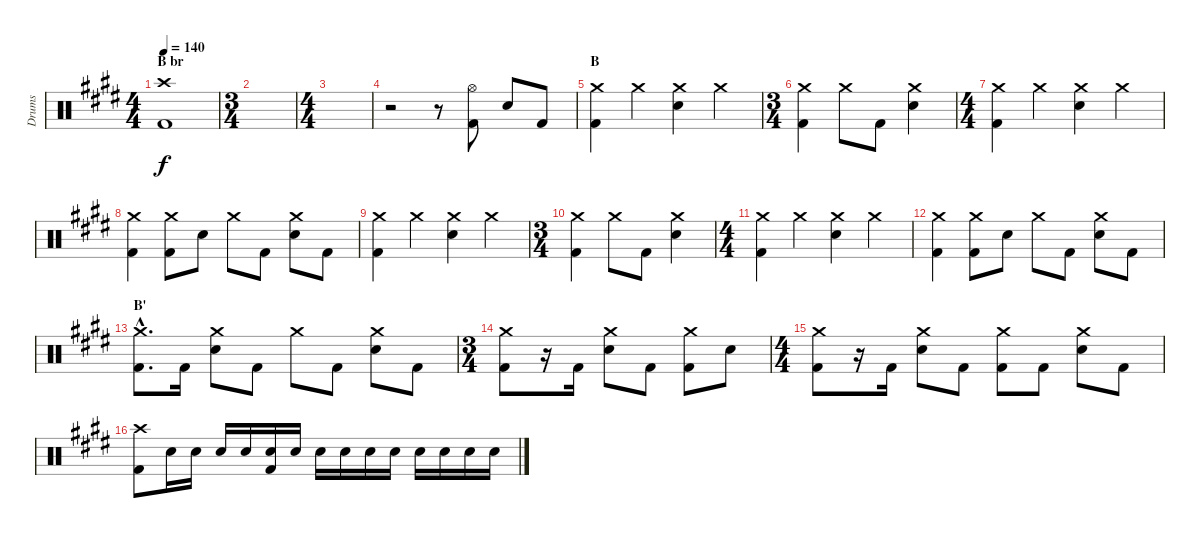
\track ("Drums" "Drums") {instrument percussion}
\staff {score}
\articulation defaults
\ts (4 4)
\section ("" "B br")
\tempo 140
\clef neutral
\ks e
("Crash high (hit)" "Kick (hit) 2").1{dy f} |
\ts (3 4)
|
\ts (4 4)
|
r.2 r.8 ("Hi-Hat (open)" "Kick (hit) 2").8 "Electric Snare (hit)".8 "Kick (hit) 2".8 |
\section ("" "B")
("Crash medium (hit)" "Kick (hit) 2").4 "Crash medium (hit)".4 ("Crash medium (hit)" "Electric Snare (hit)").4 "Crash medium (hit)".4 |
\ts (3 4)
("Crash medium (hit)" "Kick (hit) 2").4 "Crash medium (hit)".8 "Kick (hit) 2".8 ("Crash medium (hit)" "Electric Snare (hit)").4 |
\ts (4 4)
("Crash medium (hit)" "Kick (hit) 2").4 "Crash medium (hit)".4 ("Crash medium (hit)" "Electric Snare (hit)").4 "Crash medium (hit)".4 |
("Crash medium (hit)" "Kick (hit) 2").4 ("Crash medium (hit)" "Kick (hit) 2").8 "Electric Snare (hit)".8 "Crash medium (hit)".8 "Kick (hit) 2".8 ("Crash medium (hit)" "Electric Snare (hit)").8 "Kick (hit) 2".8 |
("Crash medium (hit)" "Kick (hit) 2").4 "Crash medium (hit)".4 ("Crash medium (hit)" "Electric Snare (hit)").4 "Crash medium (hit)".4 |
\ts (3 4)
("Crash medium (hit)" "Kick (hit) 2").4 "Crash medium (hit)".8 "Kick (hit) 2".8 ("Crash medium (hit)" "Electric Snare (hit)").4 |
\ts (4 4)
("Crash medium (hit)" "Kick (hit) 2").4 "Crash medium (hit)".4 ("Crash medium (hit)" "Electric Snare (hit)").4 "Crash medium (hit)".4 |
("Crash medium (hit)" "Kick (hit) 2").4 ("Crash medium (hit)" "Kick (hit) 2").8 "Electric Snare (hit)".8 "Crash medium (hit)".8 "Kick (hit) 2".8 ("Crash medium (hit)" "Electric Snare (hit)").8 "Kick (hit) 2".8 |
\section ("" "B'")
("Crash medium (hit)"{hac} "Kick (hit) 2"{hac}).8{d} "Kick (hit) 2".16 ("Crash medium (hit)" "Electric Snare (hit)").8 "Kick (hit) 2".8 "Crash medium (hit)".8 "Kick (hit) 2".8 ("Crash medium (hit)" "Electric Snare (hit)").8 "Kick (hit) 2".8 |
\ts (3 4)
("Crash medium (hit)" "Kick (hit) 2").8 r.16 "Kick (hit) 2".16 ("Crash medium (hit)" "Electric Snare (hit)").8 "Kick (hit) 2".8 ("Crash medium (hit)" "Kick (hit) 2").8 "Electric Snare (hit)".8 |
\ts (4 4)
("Crash medium (hit)" "Kick (hit) 2").8 r.16 "Kick (hit) 2".16 ("Crash medium (hit)" "Electric Snare (hit)").8 "Kick (hit) 2".8 ("Crash medium (hit)" "Kick (hit) 2").8 "Kick (hit) 2".8 ("Crash medium (hit)" "Electric Snare (hit)").8 "Kick (hit) 2".8 |
("Crash high (hit)" "Kick (hit) 2").8 "Electric Snare (hit)".16 "Electric Snare (hit)".16 "Electric Snare (hit)".16 "Electric Snare (hit)".16 ("Electric Snare (hit)" "Kick (hit) 2").16 "Electric Snare (hit)".16 "Electric Snare (hit)".16 "Electric Snare (hit)".16 "Electric Snare (hit)".16 "Electric Snare (hit)".16 "Electric Snare (hit)".16 "Electric Snare (hit)".16 "Electric Snare (hit)".16 "Electric Snare (hit)".16
